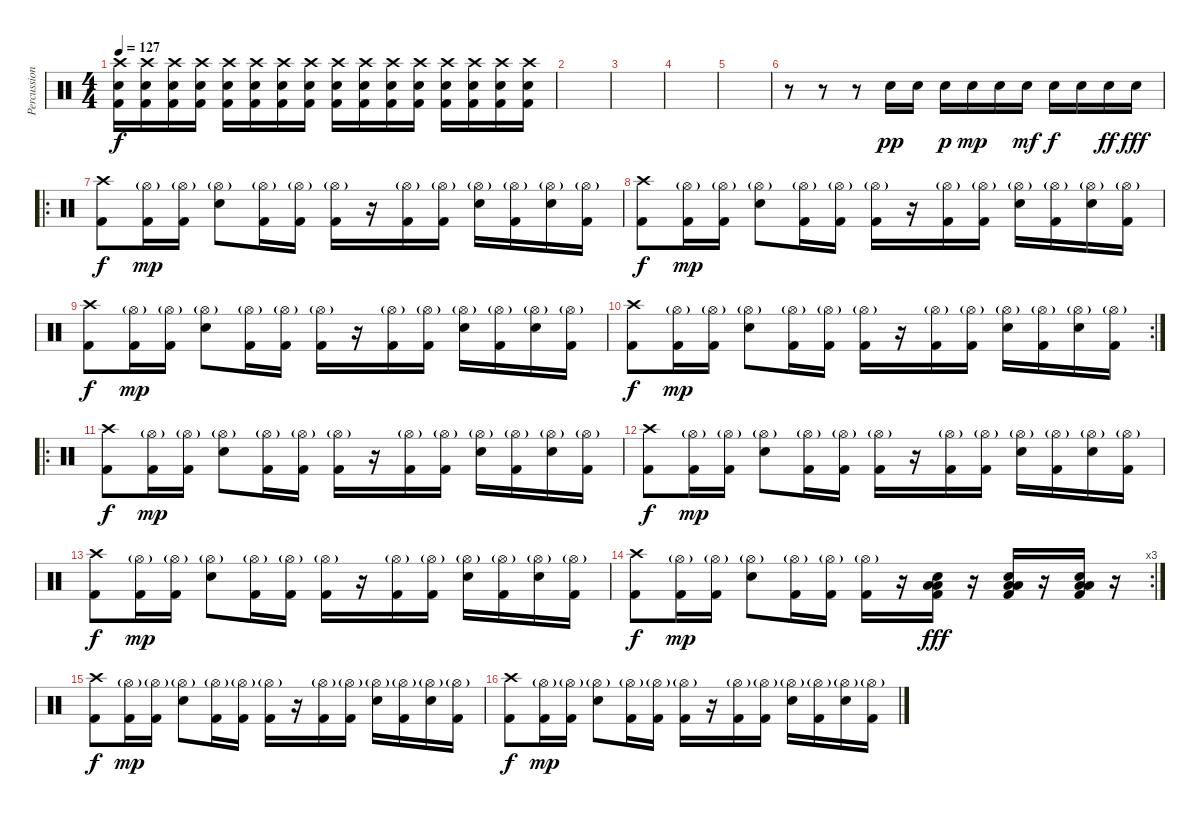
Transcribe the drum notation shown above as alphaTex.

\track ("Percussions" "Percussion") {instrument percussion}
\staff {score}
\articulation defaults
\ts (4 4)
\tempo 127
\clef neutral
\ks c
("Crash high (hit)" "Kick (hit) 2" "Electric Snare (hit)").16{dy f} ("Crash high (hit)" "Kick (hit) 2" "Electric Snare (hit)").16 ("Crash high (hit)" "Kick (hit) 2" "Electric Snare (hit)").16 ("Crash high (hit)" "Kick (hit) 2" "Electric Snare (hit)").16 ("Crash high (hit)" "Kick (hit) 2" "Electric Snare (hit)").16 ("Crash high (hit)" "Kick (hit) 2" "Electric Snare (hit)").16 ("Crash high (hit)" "Kick (hit) 2" "Electric Snare (hit)").16 ("Crash high (hit)" "Kick (hit) 2" "Electric Snare (hit)").16 ("Crash high (hit)" "Kick (hit) 2" "Electric Snare (hit)").16 ("Crash high (hit)" "Kick (hit) 2" "Electric Snare (hit)").16 ("Crash high (hit)" "Kick (hit) 2" "Electric Snare (hit)").16 ("Crash high (hit)" "Kick (hit) 2" "Electric Snare (hit)").16 ("Crash high (hit)" "Kick (hit) 2" "Electric Snare (hit)").16 ("Crash high (hit)" "Kick (hit) 2" "Electric Snare (hit)").16 ("Crash high (hit)" "Kick (hit) 2" "Electric Snare (hit)").16 ("Crash high (hit)" "Kick (hit) 2" "Electric Snare (hit)").16 |
|
|
|
|
r.8 r.8 r.8 "Electric Snare (hit)".16{dy pp} "Electric Snare (hit)".16 "Electric Snare (hit)".16{dy p} "Electric Snare (hit)".16{dy mp} "Electric Snare (hit)".16 "Electric Snare (hit)".16{dy mf} "Electric Snare (hit)".16{dy f} "Electric Snare (hit)".16 "Electric Snare (hit)".16{dy ff} "Electric Snare (hit)".16{dy fff} |
\ro
("Crash high (hit)" "Kick (hit) 2").8{dy f} ("Hi-Hat (open)"{g} "Kick (hit) 2").16{dy mp} ("Hi-Hat (open)"{g} "Kick (hit) 2").16 ("Hi-Hat (open)"{g} "Electric Snare (hit)").8 ("Hi-Hat (open)"{g} "Kick (hit) 2").16 ("Hi-Hat (open)"{g} "Kick (hit) 2").16 ("Hi-Hat (open)"{g} "Kick (hit) 2").16 r.16 ("Hi-Hat (open)"{g} "Kick (hit) 2").16 ("Hi-Hat (open)"{g} "Kick (hit) 2").16 ("Hi-Hat (open)"{g} "Electric Snare (hit)").16 ("Hi-Hat (open)"{g} "Kick (hit) 2").16 ("Hi-Hat (open)"{g} "Electric Snare (hit)").16 ("Hi-Hat (open)"{g} "Kick (hit) 2").16 |
("Crash high (hit)" "Kick (hit) 2").8{dy f} ("Hi-Hat (open)"{g} "Kick (hit) 2").16{dy mp} ("Hi-Hat (open)"{g} "Kick (hit) 2").16 ("Hi-Hat (open)"{g} "Electric Snare (hit)").8 ("Hi-Hat (open)"{g} "Kick (hit) 2").16 ("Hi-Hat (open)"{g} "Kick (hit) 2").16 ("Hi-Hat (open)"{g} "Kick (hit) 2").16 r.16 ("Hi-Hat (open)"{g} "Kick (hit) 2").16 ("Hi-Hat (open)"{g} "Kick (hit) 2").16 ("Hi-Hat (open)"{g} "Electric Snare (hit)").16 ("Hi-Hat (open)"{g} "Kick (hit) 2").16 ("Hi-Hat (open)"{g} "Electric Snare (hit)").16 ("Hi-Hat (open)"{g} "Kick (hit) 2").16 |
("Crash high (hit)" "Kick (hit) 2").8{dy f} ("Hi-Hat (open)"{g} "Kick (hit) 2").16{dy mp} ("Hi-Hat (open)"{g} "Kick (hit) 2").16 ("Hi-Hat (open)"{g} "Electric Snare (hit)").8 ("Hi-Hat (open)"{g} "Kick (hit) 2").16 ("Hi-Hat (open)"{g} "Kick (hit) 2").16 ("Hi-Hat (open)"{g} "Kick (hit) 2").16 r.16 ("Hi-Hat (open)"{g} "Kick (hit) 2").16 ("Hi-Hat (open)"{g} "Kick (hit) 2").16 ("Hi-Hat (open)"{g} "Electric Snare (hit)").16 ("Hi-Hat (open)"{g} "Kick (hit) 2").16 ("Hi-Hat (open)"{g} "Electric Snare (hit)").16 ("Hi-Hat (open)"{g} "Kick (hit) 2").16 |
\rc 2
("Crash high (hit)" "Kick (hit) 2").8{dy f} ("Hi-Hat (open)"{g} "Kick (hit) 2").16{dy mp} ("Hi-Hat (open)"{g} "Kick (hit) 2").16 ("Hi-Hat (open)"{g} "Electric Snare (hit)").8 ("Hi-Hat (open)"{g} "Kick (hit) 2").16 ("Hi-Hat (open)"{g} "Kick (hit) 2").16 ("Hi-Hat (open)"{g} "Kick (hit) 2").16 r.16 ("Hi-Hat (open)"{g} "Kick (hit) 2").16 ("Hi-Hat (open)"{g} "Kick (hit) 2").16 ("Hi-Hat (open)"{g} "Electric Snare (hit)").16 ("Hi-Hat (open)"{g} "Kick (hit) 2").16 ("Hi-Hat (open)"{g} "Electric Snare (hit)").16 ("Hi-Hat (open)"{g} "Kick (hit) 2").16 |
\ro
("Crash high (hit)" "Kick (hit) 2").8{dy f} ("Hi-Hat (open)"{g} "Kick (hit) 2").16{dy mp} ("Hi-Hat (open)"{g} "Kick (hit) 2").16 ("Hi-Hat (open)"{g} "Electric Snare (hit)").8 ("Hi-Hat (open)"{g} "Kick (hit) 2").16 ("Hi-Hat (open)"{g} "Kick (hit) 2").16 ("Hi-Hat (open)"{g} "Kick (hit) 2").16 r.16 ("Hi-Hat (open)"{g} "Kick (hit) 2").16 ("Hi-Hat (open)"{g} "Kick (hit) 2").16 ("Hi-Hat (open)"{g} "Electric Snare (hit)").16 ("Hi-Hat (open)"{g} "Kick (hit) 2").16 ("Hi-Hat (open)"{g} "Electric Snare (hit)").16 ("Hi-Hat (open)"{g} "Kick (hit) 2").16 |
("Crash high (hit)" "Kick (hit) 2").8{dy f} ("Hi-Hat (open)"{g} "Kick (hit) 2").16{dy mp} ("Hi-Hat (open)"{g} "Kick (hit) 2").16 ("Hi-Hat (open)"{g} "Electric Snare (hit)").8 ("Hi-Hat (open)"{g} "Kick (hit) 2").16 ("Hi-Hat (open)"{g} "Kick (hit) 2").16 ("Hi-Hat (open)"{g} "Kick (hit) 2").16 r.16 ("Hi-Hat (open)"{g} "Kick (hit) 2").16 ("Hi-Hat (open)"{g} "Kick (hit) 2").16 ("Hi-Hat (open)"{g} "Electric Snare (hit)").16 ("Hi-Hat (open)"{g} "Kick (hit) 2").16 ("Hi-Hat (open)"{g} "Electric Snare (hit)").16 ("Hi-Hat (open)"{g} "Kick (hit) 2").16 |
("Crash high (hit)" "Kick (hit) 2").8{dy f} ("Hi-Hat (open)"{g} "Kick (hit) 2").16{dy mp} ("Hi-Hat (open)"{g} "Kick (hit) 2").16 ("Hi-Hat (open)"{g} "Electric Snare (hit)").8 ("Hi-Hat (open)"{g} "Kick (hit) 2").16 ("Hi-Hat (open)"{g} "Kick (hit) 2").16 ("Hi-Hat (open)"{g} "Kick (hit) 2").16 r.16 ("Hi-Hat (open)"{g} "Kick (hit) 2").16 ("Hi-Hat (open)"{g} "Kick (hit) 2").16 ("Hi-Hat (open)"{g} "Electric Snare (hit)").16 ("Hi-Hat (open)"{g} "Kick (hit) 2").16 ("Hi-Hat (open)"{g} "Electric Snare (hit)").16 ("Hi-Hat (open)"{g} "Kick (hit) 2").16 |
\rc 3
("Crash high (hit)" "Kick (hit) 2").8{dy f} ("Hi-Hat (open)"{g} "Kick (hit) 2").16{dy mp} ("Hi-Hat (open)"{g} "Kick (hit) 2").16 ("Hi-Hat (open)"{g} "Electric Snare (hit)").8 ("Hi-Hat (open)"{g} "Kick (hit) 2").16 ("Hi-Hat (open)"{g} "Kick (hit) 2").16 ("Hi-Hat (open)"{g} "Kick (hit) 2").16 r.16 ("Low Floor Tom (hit)" "Low Floor Tom (hit)" "Kick (hit) 2" "Electric Snare (hit)").16{dy fff} r.16 ("Low Floor Tom (hit)" "Low Floor Tom (hit)" "Kick (hit) 2" "Electric Snare (hit)").16 r.16 ("Low Floor Tom (hit)" "Low Floor Tom (hit)" "Kick (hit) 2" "Electric Snare (hit)").16 r.16 |
("Crash high (hit)" "Kick (hit) 2").8{dy f} ("Hi-Hat (open)"{g} "Kick (hit) 2").16{dy mp} ("Hi-Hat (open)"{g} "Kick (hit) 2").16 ("Hi-Hat (open)"{g} "Electric Snare (hit)").8 ("Hi-Hat (open)"{g} "Kick (hit) 2").16 ("Hi-Hat (open)"{g} "Kick (hit) 2").16 ("Hi-Hat (open)"{g} "Kick (hit) 2").16 r.16 ("Hi-Hat (open)"{g} "Kick (hit) 2").16 ("Hi-Hat (open)"{g} "Kick (hit) 2").16 ("Hi-Hat (open)"{g} "Electric Snare (hit)").16 ("Hi-Hat (open)"{g} "Kick (hit) 2").16 ("Hi-Hat (open)"{g} "Electric Snare (hit)").16 ("Hi-Hat (open)"{g} "Kick (hit) 2").16 |
("Crash high (hit)" "Kick (hit) 2").8{dy f} ("Hi-Hat (open)"{g} "Kick (hit) 2").16{dy mp} ("Hi-Hat (open)"{g} "Kick (hit) 2").16 ("Hi-Hat (open)"{g} "Electric Snare (hit)").8 ("Hi-Hat (open)"{g} "Kick (hit) 2").16 ("Hi-Hat (open)"{g} "Kick (hit) 2").16 ("Hi-Hat (open)"{g} "Kick (hit) 2").16 r.16 ("Hi-Hat (open)"{g} "Kick (hit) 2").16 ("Hi-Hat (open)"{g} "Kick (hit) 2").16 ("Hi-Hat (open)"{g} "Electric Snare (hit)").16 ("Hi-Hat (open)"{g} "Kick (hit) 2").16 ("Hi-Hat (open)"{g} "Electric Snare (hit)").16 ("Hi-Hat (open)"{g} "Kick (hit) 2").16
